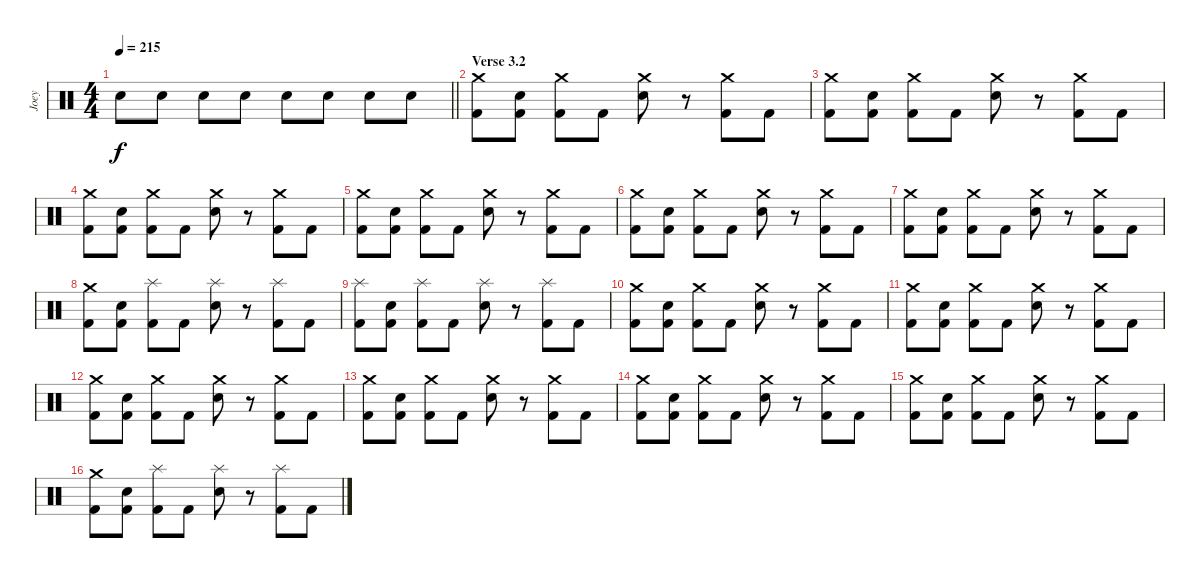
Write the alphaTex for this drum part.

\track ("Joey" "Joey") {instrument percussion}
\staff {score}
\articulation defaults
\ts (4 4)
\tempo 215
\clef neutral
\barLineRight lightlight
\ks c "Electric Snare (hit)".8{dy f} "Electric Snare (hit)".8 "Electric Snare (hit)".8 "Electric Snare (hit)".8 "Electric Snare (hit)".8 "Electric Snare (hit)".8 "Electric Snare (hit)".8 "Electric Snare (hit)".8
|
\section ("" "Verse 3.2")
("Crash medium (hit)" "Kick (hit) 2").8 ("Electric Snare (hit)" "Kick (hit) 2").8 ("Crash medium (hit)" "Kick (hit) 2").8 "Kick (hit) 2".8 ("Crash medium (hit)" "Electric Snare (hit)").8 r.8 ("Crash medium (hit)" "Kick (hit) 2").8 "Kick (hit) 2".8 |
("Crash medium (hit)" "Kick (hit) 2").8 ("Electric Snare (hit)" "Kick (hit) 2").8 ("Crash medium (hit)" "Kick (hit) 2").8 "Kick (hit) 2".8 ("Crash medium (hit)" "Electric Snare (hit)").8 r.8 ("Crash medium (hit)" "Kick (hit) 2").8 "Kick (hit) 2".8 |
("Crash medium (hit)" "Kick (hit) 2").8 ("Electric Snare (hit)" "Kick (hit) 2").8 ("Crash medium (hit)" "Kick (hit) 2").8 "Kick (hit) 2".8 ("Crash medium (hit)" "Electric Snare (hit)").8 r.8 ("Crash medium (hit)" "Kick (hit) 2").8 "Kick (hit) 2".8 |
("Crash medium (hit)" "Kick (hit) 2").8 ("Electric Snare (hit)" "Kick (hit) 2").8 ("Crash medium (hit)" "Kick (hit) 2").8 "Kick (hit) 2".8 ("Crash medium (hit)" "Electric Snare (hit)").8 r.8 ("Crash medium (hit)" "Kick (hit) 2").8 "Kick (hit) 2".8 |
("Crash medium (hit)" "Kick (hit) 2").8 ("Electric Snare (hit)" "Kick (hit) 2").8 ("Crash medium (hit)" "Kick (hit) 2").8 "Kick (hit) 2".8 ("Crash medium (hit)" "Electric Snare (hit)").8 r.8 ("Crash medium (hit)" "Kick (hit) 2").8 "Kick (hit) 2".8 |
("Crash medium (hit)" "Kick (hit) 2").8 ("Electric Snare (hit)" "Kick (hit) 2").8 ("Crash medium (hit)" "Kick (hit) 2").8 "Kick (hit) 2".8 ("Crash medium (hit)" "Electric Snare (hit)").8 r.8 ("Crash medium (hit)" "Kick (hit) 2").8 "Kick (hit) 2".8 |
("Crash medium (hit)" "Kick (hit) 2").8 ("Electric Snare (hit)" "Kick (hit) 2").8 ("Splash (hit)" "Kick (hit) 2").8 "Kick (hit) 2".8 ("Splash (hit)" "Electric Snare (hit)").8 r.8 ("Splash (hit)" "Kick (hit) 2").8 "Kick (hit) 2".8 |
("Splash (hit)" "Kick (hit) 2").8 ("Electric Snare (hit)" "Kick (hit) 2").8 ("Splash (hit)" "Kick (hit) 2").8 "Kick (hit) 2".8 ("Splash (hit)" "Electric Snare (hit)").8 r.8 ("Splash (hit)" "Kick (hit) 2").8 "Kick (hit) 2".8 |
("Crash medium (hit)" "Kick (hit) 2").8 ("Electric Snare (hit)" "Kick (hit) 2").8 ("Crash medium (hit)" "Kick (hit) 2").8 "Kick (hit) 2".8 ("Crash medium (hit)" "Electric Snare (hit)").8 r.8 ("Crash medium (hit)" "Kick (hit) 2").8 "Kick (hit) 2".8 |
("Crash medium (hit)" "Kick (hit) 2").8 ("Electric Snare (hit)" "Kick (hit) 2").8 ("Crash medium (hit)" "Kick (hit) 2").8 "Kick (hit) 2".8 ("Crash medium (hit)" "Electric Snare (hit)").8 r.8 ("Crash medium (hit)" "Kick (hit) 2").8 "Kick (hit) 2".8 |
("Crash medium (hit)" "Kick (hit) 2").8 ("Electric Snare (hit)" "Kick (hit) 2").8 ("Crash medium (hit)" "Kick (hit) 2").8 "Kick (hit) 2".8 ("Crash medium (hit)" "Electric Snare (hit)").8 r.8 ("Crash medium (hit)" "Kick (hit) 2").8 "Kick (hit) 2".8 |
("Crash medium (hit)" "Kick (hit) 2").8 ("Electric Snare (hit)" "Kick (hit) 2").8 ("Crash medium (hit)" "Kick (hit) 2").8 "Kick (hit) 2".8 ("Crash medium (hit)" "Electric Snare (hit)").8 r.8 ("Crash medium (hit)" "Kick (hit) 2").8 "Kick (hit) 2".8 |
("Crash medium (hit)" "Kick (hit) 2").8 ("Electric Snare (hit)" "Kick (hit) 2").8 ("Crash medium (hit)" "Kick (hit) 2").8 "Kick (hit) 2".8 ("Crash medium (hit)" "Electric Snare (hit)").8 r.8 ("Crash medium (hit)" "Kick (hit) 2").8 "Kick (hit) 2".8 |
("Crash medium (hit)" "Kick (hit) 2").8 ("Electric Snare (hit)" "Kick (hit) 2").8 ("Crash medium (hit)" "Kick (hit) 2").8 "Kick (hit) 2".8 ("Crash medium (hit)" "Electric Snare (hit)").8 r.8 ("Crash medium (hit)" "Kick (hit) 2").8 "Kick (hit) 2".8 |
("Crash medium (hit)" "Kick (hit) 2").8 ("Electric Snare (hit)" "Kick (hit) 2").8 ("Splash (hit)" "Kick (hit) 2").8 "Kick (hit) 2".8 ("Splash (hit)" "Electric Snare (hit)").8 r.8 ("Splash (hit)" "Kick (hit) 2").8 "Kick (hit) 2".8
